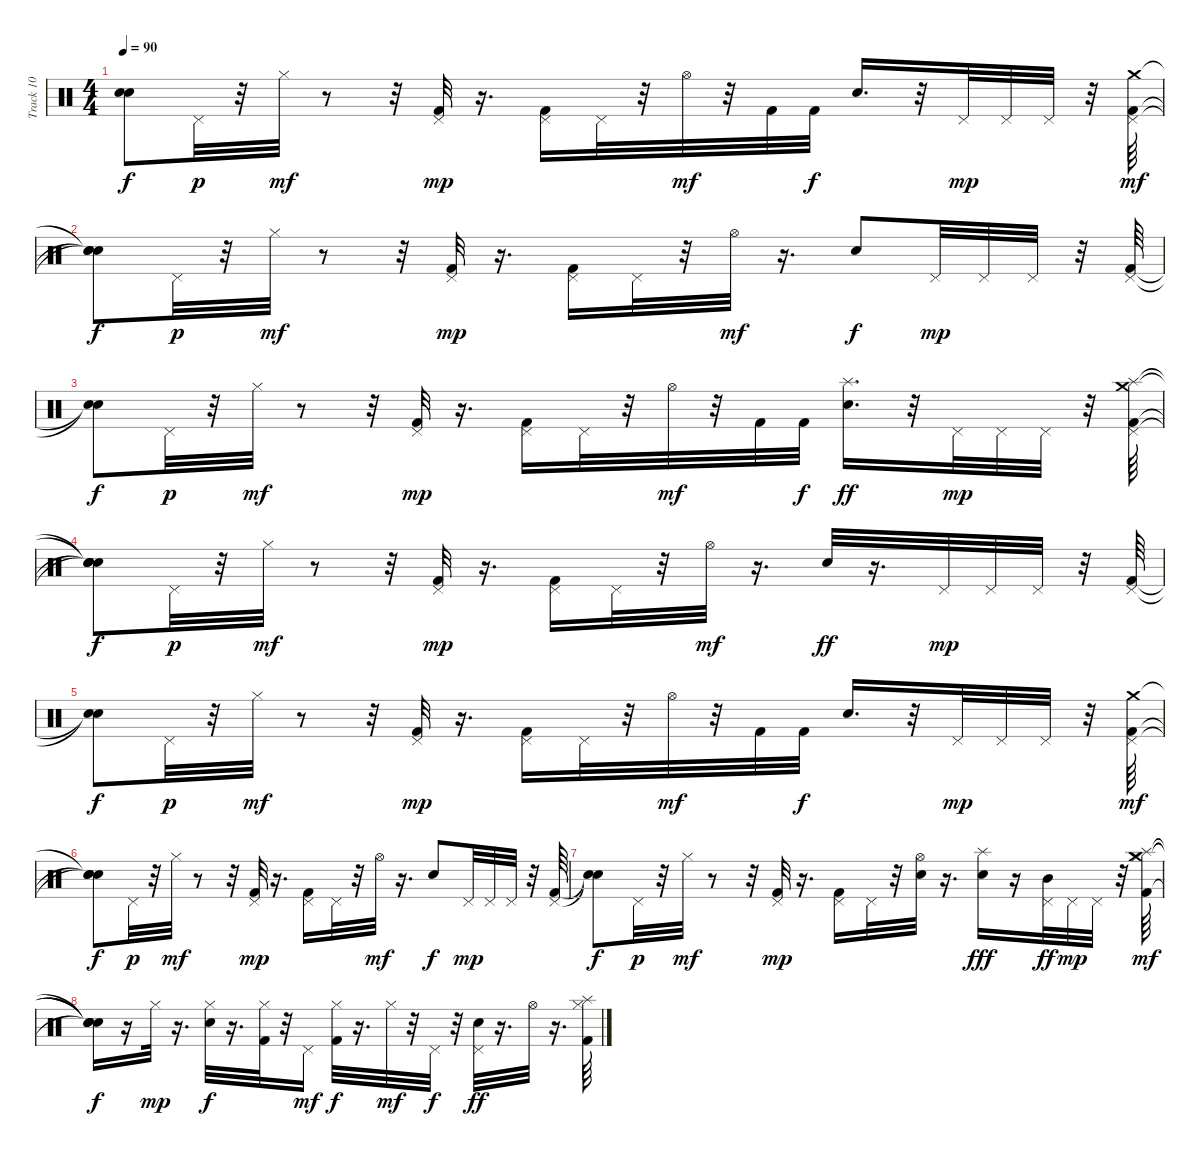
\track ("Track 10" "Track 10") {instrument percussion}
\staff {score}
\articulation defaults
\ts (4 4)
\tempo 90
\clef neutral
\ks c
("Snare (hit)"{t} "Snare (hit)"{t}).8{dy f} "Pedal Hi-Hat (hit)".32{dy p} r.32 "Hi-Hat (closed)".32{dy mf} r.8 r.32 ("Pedal Hi-Hat (hit)" "Kick (hit) 2").32{dy mp} r.16{d} ("Pedal Hi-Hat (hit)" "Kick (hit) 2").16 "Pedal Hi-Hat (hit)".32 r.32 "Hi-Hat (open)".32{dy mf} r.32 "Kick (hit) 2".32 "Kick (hit) 2".32{dy f} "Snare (hit) 2".16{d} r.32 "Pedal Hi-Hat (hit)".32{dy mp} "Pedal Hi-Hat (hit)".32 "Pedal Hi-Hat (hit)".32 r.32 ("Pedal Hi-Hat (hit)" "Crash medium (hit)" "Kick (hit) 2").64{dy mf} |
("Snare (hit)"{t} "Snare (hit)"{t} "Snare (hit)"{t}).8{dy f} "Pedal Hi-Hat (hit)".32{dy p} r.32 "Hi-Hat (closed)".32{dy mf} r.8 r.32 ("Pedal Hi-Hat (hit)" "Kick (hit) 2").32{dy mp} r.16{d} ("Pedal Hi-Hat (hit)" "Kick (hit) 2").16 "Pedal Hi-Hat (hit)".32 r.32 "Hi-Hat (open)".32{dy mf} r.16{d} "Snare (hit) 2".8{dy f} "Pedal Hi-Hat (hit)".32{dy mp} "Pedal Hi-Hat (hit)".32 "Pedal Hi-Hat (hit)".32 r.32 ("Pedal Hi-Hat (hit)" "Kick (hit) 2").64 |
("Snare (hit)"{t} "Snare (hit)"{t}).8{dy f} "Pedal Hi-Hat (hit)".32{dy p} r.32 "Hi-Hat (closed)".32{dy mf} r.8 r.32 ("Pedal Hi-Hat (hit)" "Kick (hit) 2").32{dy mp} r.16{d} ("Pedal Hi-Hat (hit)" "Kick (hit) 2").16 "Pedal Hi-Hat (hit)".32 r.32 "Hi-Hat (open)".32{dy mf} r.32 "Kick (hit) 2".32 "Kick (hit) 2".32{dy f} ("Splash (hit)" "Snare (hit) 2").16{d dy ff} r.32 "Pedal Hi-Hat (hit)".32{dy mp} "Pedal Hi-Hat (hit)".32 "Pedal Hi-Hat (hit)".32 r.32 ("Pedal Hi-Hat (hit)" "Crash medium (hit)" "Splash (hit)" "Kick (hit) 2").64 |
("Snare (hit)"{t} "Snare (hit)"{t} "Snare (hit)"{t} "Snare (hit)"{t}).8{dy f} "Pedal Hi-Hat (hit)".32{dy p} r.32 "Hi-Hat (closed)".32{dy mf} r.8 r.32 ("Pedal Hi-Hat (hit)" "Kick (hit) 2").32{dy mp} r.16{d} ("Pedal Hi-Hat (hit)" "Kick (hit) 2").16 "Pedal Hi-Hat (hit)".32 r.32 "Hi-Hat (open)".32{dy mf} r.16{d} "Snare (hit) 2".32{dy ff} r.16{d} "Pedal Hi-Hat (hit)".32{dy mp} "Pedal Hi-Hat (hit)".32 "Pedal Hi-Hat (hit)".32 r.32 ("Pedal Hi-Hat (hit)" "Kick (hit) 2").64 |
("Snare (hit)"{t} "Snare (hit)"{t}).8{dy f} "Pedal Hi-Hat (hit)".32{dy p} r.32 "Hi-Hat (closed)".32{dy mf} r.8 r.32 ("Pedal Hi-Hat (hit)" "Kick (hit) 2").32{dy mp} r.16{d} ("Pedal Hi-Hat (hit)" "Kick (hit) 2").16 "Pedal Hi-Hat (hit)".32 r.32 "Hi-Hat (open)".32{dy mf} r.32 "Kick (hit) 2".32 "Kick (hit) 2".32{dy f} "Snare (hit) 2".16{d} r.32 "Pedal Hi-Hat (hit)".32{dy mp} "Pedal Hi-Hat (hit)".32 "Pedal Hi-Hat (hit)".32 r.32 ("Pedal Hi-Hat (hit)" "Crash medium (hit)" "Kick (hit) 2").64{dy mf} |
("Snare (hit)"{t} "Snare (hit)"{t} "Snare (hit)"{t}).8{dy f} "Pedal Hi-Hat (hit)".32{dy p} r.32 "Hi-Hat (closed)".32{dy mf} r.8 r.32 ("Pedal Hi-Hat (hit)" "Kick (hit) 2").32{dy mp} r.16{d} ("Pedal Hi-Hat (hit)" "Kick (hit) 2").16 "Pedal Hi-Hat (hit)".32 r.32 "Hi-Hat (open)".32{dy mf} r.16{d} "Snare (hit) 2".8{dy f} "Pedal Hi-Hat (hit)".32{dy mp} "Pedal Hi-Hat (hit)".32 "Pedal Hi-Hat (hit)".32 r.32 ("Pedal Hi-Hat (hit)" "Kick (hit) 2").64 |
("Snare (hit)"{t} "Snare (hit)"{t}).8{dy f} "Pedal Hi-Hat (hit)".32{dy p} r.32 "Hi-Hat (closed)".32{dy mf} r.8 r.32 ("Pedal Hi-Hat (hit)" "Kick (hit) 2").32{dy mp} r.16{d} ("Pedal Hi-Hat (hit)" "Kick (hit) 2").16 "Pedal Hi-Hat (hit)".32 r.32 ("Hi-Hat (open)" "Snare (hit) 2").32 r.16{d} ("Splash (hit)" "Snare (hit) 2").16{dy fff} r.16 ("Pedal Hi-Hat (hit)" "Mid Tom (hit)").32{dy ff} "Pedal Hi-Hat (hit)".32{dy mp} "Pedal Hi-Hat (hit)".32 r.32 ("Hi-Hat (closed)" "Splash (hit)" "Crash medium (hit)" "Kick (hit) 2").64{dy mf} |
("Snare (hit)"{t} "Snare (hit)"{t} "Snare (hit)"{t} "Snare (hit)"{t}).16{dy f} r.16 "Hi-Hat (closed)".32{dy mp} r.16{d} ("Hi-Hat (closed)" "Snare (hit) 2").32{dy f} r.16{d} ("Hi-Hat (closed)" "Kick (hit) 2").32 r.32 "Pedal Hi-Hat (hit)".16{dy mf} ("Hi-Hat (closed)" "Kick (hit) 2").32{dy f} r.16{d} "Hi-Hat (closed)".32{dy mf} r.32 "Pedal Hi-Hat (hit)".32{dy f} r.32 ("Pedal Hi-Hat (hit)" "Snare (hit) 2").32{dy ff} r.16{d} "Hi-Hat (open)".32 r.16{d} ("Hi-Hat (closed)" "Splash (hit)" "Kick (hit) 2").64
